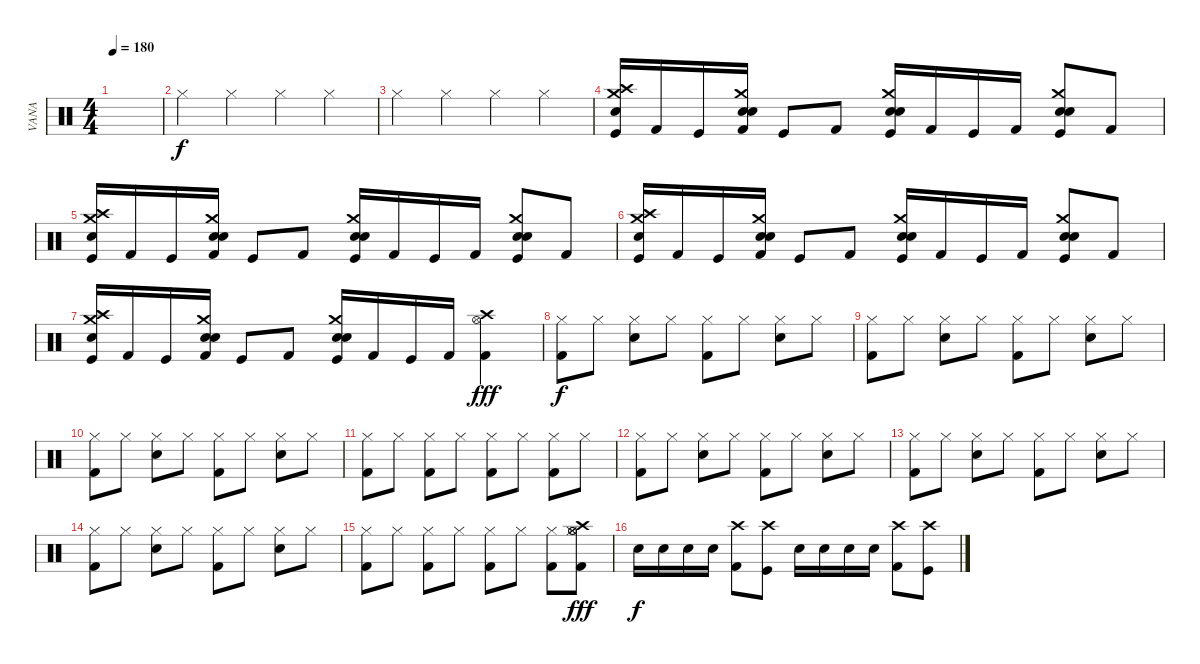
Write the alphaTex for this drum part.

\track ("VANA" "VANA") {instrument percussion}
\staff {score}
\articulation defaults
\ts (4 4)
\tempo 180
\clef neutral
\ks c
|
"Hi-Hat (closed)".4 "Hi-Hat (closed)".4 "Hi-Hat (closed)".4 "Hi-Hat (closed)".4 |
"Hi-Hat (closed)".4 "Hi-Hat (closed)".4 "Hi-Hat (closed)".4 "Hi-Hat (closed)".4 |
("Snare (hit) 2" "Crash medium (hit)" "Crash high (hit)" "Kick (hit)").16 "Kick (hit) 2".16 "Kick (hit)".16 ("Snare (hit) 2" "Crash medium (hit)" "Electric Snare (hit)" "Kick (hit) 2").16 "Kick (hit)".8 "Kick (hit) 2".8 ("Snare (hit) 2" "Crash medium (hit)" "Electric Snare (hit)" "Kick (hit)").16 "Kick (hit) 2".16 "Kick (hit)".16 "Kick (hit) 2".16 ("Snare (hit) 2" "Crash medium (hit)" "Electric Snare (hit)" "Kick (hit)").8 "Kick (hit) 2".8 |
("Snare (hit) 2" "Crash medium (hit)" "Crash high (hit)" "Kick (hit)").16 "Kick (hit) 2".16 "Kick (hit)".16 ("Snare (hit) 2" "Crash medium (hit)" "Electric Snare (hit)" "Kick (hit) 2").16 "Kick (hit)".8 "Kick (hit) 2".8 ("Snare (hit) 2" "Crash medium (hit)" "Electric Snare (hit)" "Kick (hit)").16 "Kick (hit) 2".16 "Kick (hit)".16 "Kick (hit) 2".16 ("Snare (hit) 2" "Crash medium (hit)" "Electric Snare (hit)" "Kick (hit)").8 "Kick (hit) 2".8 |
("Snare (hit) 2" "Crash medium (hit)" "Crash high (hit)" "Kick (hit)").16 "Kick (hit) 2".16 "Kick (hit)".16 ("Snare (hit) 2" "Crash medium (hit)" "Electric Snare (hit)" "Kick (hit) 2").16 "Kick (hit)".8 "Kick (hit) 2".8 ("Snare (hit) 2" "Crash medium (hit)" "Electric Snare (hit)" "Kick (hit)").16 "Kick (hit) 2".16 "Kick (hit)".16 "Kick (hit) 2".16 ("Snare (hit) 2" "Crash medium (hit)" "Electric Snare (hit)" "Kick (hit)").8 "Kick (hit) 2".8 |
("Snare (hit) 2" "Crash medium (hit)" "Crash high (hit)" "Kick (hit)").16 "Kick (hit) 2".16 "Kick (hit)".16 ("Snare (hit) 2" "Crash medium (hit)" "Electric Snare (hit)" "Kick (hit) 2").16 "Kick (hit)".8 "Kick (hit) 2".8 ("Snare (hit) 2" "Crash medium (hit)" "Electric Snare (hit)" "Kick (hit)").16 "Kick (hit) 2".16 "Kick (hit)".16 "Kick (hit) 2".16 ("Hi-Hat (open)" "Crash high (hit)" "Kick (hit) 2").4{dy fff} |
("Hi-Hat (closed)" "Kick (hit) 2").8{dy f} "Hi-Hat (closed)".8 ("Hi-Hat (closed)" "Electric Snare (hit)").8 "Hi-Hat (closed)".8 ("Hi-Hat (closed)" "Kick (hit) 2").8 "Hi-Hat (closed)".8 ("Hi-Hat (closed)" "Electric Snare (hit)").8 "Hi-Hat (closed)".8 |
("Hi-Hat (closed)" "Kick (hit) 2").8 "Hi-Hat (closed)".8 ("Hi-Hat (closed)" "Electric Snare (hit)").8 "Hi-Hat (closed)".8 ("Hi-Hat (closed)" "Kick (hit) 2").8 "Hi-Hat (closed)".8 ("Hi-Hat (closed)" "Electric Snare (hit)").8 "Hi-Hat (closed)".8 |
("Hi-Hat (closed)" "Kick (hit) 2").8 "Hi-Hat (closed)".8 ("Hi-Hat (closed)" "Electric Snare (hit)").8 "Hi-Hat (closed)".8 ("Hi-Hat (closed)" "Kick (hit) 2").8 "Hi-Hat (closed)".8 ("Hi-Hat (closed)" "Electric Snare (hit)").8 "Hi-Hat (closed)".8 |
("Hi-Hat (closed)" "Kick (hit) 2").8 "Hi-Hat (closed)".8 ("Hi-Hat (closed)" "Kick (hit) 2").8 "Hi-Hat (closed)".8 ("Hi-Hat (closed)" "Kick (hit) 2").8 "Hi-Hat (closed)".8 ("Hi-Hat (closed)" "Kick (hit) 2").8 "Hi-Hat (closed)".8 |
("Hi-Hat (closed)" "Kick (hit) 2").8 "Hi-Hat (closed)".8 ("Hi-Hat (closed)" "Electric Snare (hit)").8 "Hi-Hat (closed)".8 ("Hi-Hat (closed)" "Kick (hit) 2").8 "Hi-Hat (closed)".8 ("Hi-Hat (closed)" "Electric Snare (hit)").8 "Hi-Hat (closed)".8 |
("Hi-Hat (closed)" "Kick (hit) 2").8 "Hi-Hat (closed)".8 ("Hi-Hat (closed)" "Electric Snare (hit)").8 "Hi-Hat (closed)".8 ("Hi-Hat (closed)" "Kick (hit) 2").8 "Hi-Hat (closed)".8 ("Hi-Hat (closed)" "Electric Snare (hit)").8 "Hi-Hat (closed)".8 |
("Hi-Hat (closed)" "Kick (hit) 2").8 "Hi-Hat (closed)".8 ("Hi-Hat (closed)" "Electric Snare (hit)").8 "Hi-Hat (closed)".8 ("Hi-Hat (closed)" "Kick (hit) 2").8 "Hi-Hat (closed)".8 ("Hi-Hat (closed)" "Electric Snare (hit)").8 "Hi-Hat (closed)".8 |
("Hi-Hat (closed)" "Kick (hit) 2").8 "Hi-Hat (closed)".8 ("Hi-Hat (closed)" "Kick (hit) 2").8 "Hi-Hat (closed)".8 ("Hi-Hat (closed)" "Kick (hit) 2").8 "Hi-Hat (closed)".8 ("Hi-Hat (closed)" "Kick (hit) 2").8 ("Hi-Hat (closed)" "Hi-Hat (open)" "Hi-Hat (open)" "Crash high (hit)" "Kick (hit) 2").8{dy fff} |
"Electric Snare (hit)".16{dy f} "Electric Snare (hit)".16 "Electric Snare (hit)".16 "Electric Snare (hit)".16 ("Crash high (hit)" "Kick (hit) 2").8 ("Crash high (hit)" "Kick (hit)").8 "Electric Snare (hit)".16 "Electric Snare (hit)".16 "Electric Snare (hit)".16 "Electric Snare (hit)".16 ("Crash high (hit)" "Kick (hit) 2").8 ("Crash high (hit)" "Kick (hit)").8
